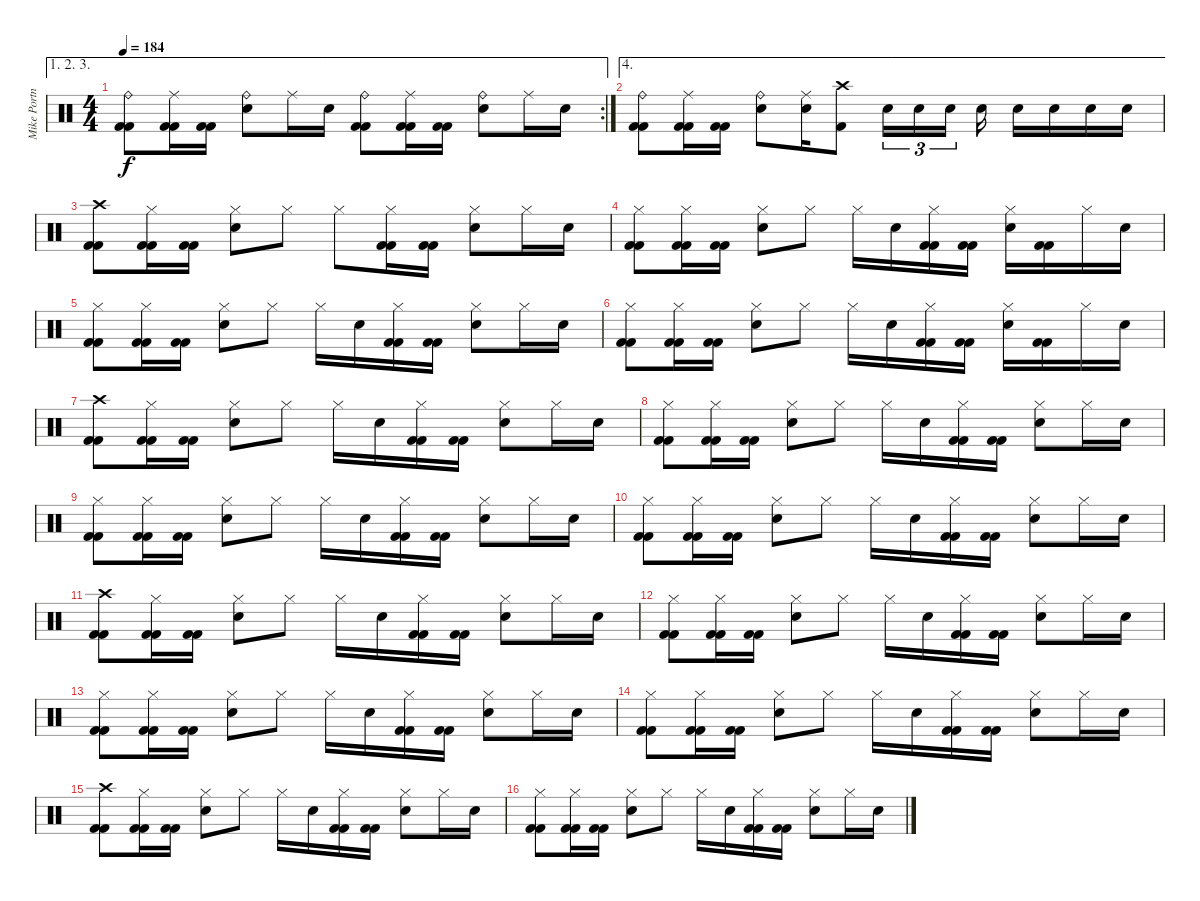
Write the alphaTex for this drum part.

\track ("Mike Portnoy - Drum" "Mike Portn") {instrument percussion}
\staff {score}
\articulation defaults
\ae (1 2 3)
\rc 2
\ts (4 4)
\tempo 184
\clef neutral
\ks c
("Ride (bell)" "Kick (hit) 2" "Kick (hit) 2").8{dy f} ("Ride (middle)" "Kick (hit) 2" "Kick (hit) 2").16 ("Kick (hit) 2" "Kick (hit) 2").16 ("Ride (bell)" "Snare (hit) 2").8 "Ride (middle)".16 "Snare (hit) 2".16 ("Ride (bell)" "Kick (hit) 2" "Kick (hit) 2").8 ("Ride (middle)" "Kick (hit) 2" "Kick (hit) 2").16 ("Kick (hit) 2" "Kick (hit) 2").16 ("Ride (bell)" "Snare (hit) 2").8 "Ride (middle)".16 "Snare (hit) 2".16 |
\ae 4
("Ride (bell)" "Kick (hit) 2" "Kick (hit) 2").8 ("Ride (middle)" "Kick (hit) 2" "Kick (hit) 2").16 ("Kick (hit) 2" "Kick (hit) 2").16 ("Ride (bell)" "Snare (hit) 2").8 ("Ride (middle)" "Snare (hit) 2").16 ("Crash high (hit)" "Kick (hit) 2").8 "Snare (hit) 2".16{tu (3 2)} "Snare (hit) 2".16{tu (3 2)} "Snare (hit) 2".16{tu (3 2)} "Snare (hit) 2".16 "Snare (hit) 2".16 "Snare (hit) 2".16 "Snare (hit) 2".16 "Snare (hit) 2".16 |
("Crash high (hit)" "Kick (hit) 2" "Kick (hit) 2").8 ("Hi-Hat (closed)" "Kick (hit) 2" "Kick (hit) 2").16 ("Kick (hit) 2" "Kick (hit) 2").16 ("Hi-Hat (closed)" "Snare (hit) 2").8 "Hi-Hat (closed)".8 "Hi-Hat (closed)".8 ("Hi-Hat (closed)" "Kick (hit) 2" "Kick (hit) 2").16 ("Kick (hit) 2" "Kick (hit) 2").16 ("Hi-Hat (closed)" "Snare (hit) 2").8 "Hi-Hat (closed)".16 "Snare (hit) 2".16 |
("Hi-Hat (closed)" "Kick (hit) 2" "Kick (hit) 2").8 ("Hi-Hat (closed)" "Kick (hit) 2" "Kick (hit) 2").16 ("Kick (hit) 2" "Kick (hit) 2").16 ("Hi-Hat (closed)" "Snare (hit) 2").8 "Hi-Hat (closed)".8 "Hi-Hat (closed)".16 "Snare (hit) 2".16 ("Hi-Hat (closed)" "Kick (hit) 2" "Kick (hit) 2").16 ("Kick (hit) 2" "Kick (hit) 2").16 ("Hi-Hat (closed)" "Snare (hit) 2").16 ("Kick (hit) 2" "Kick (hit) 2").16 "Hi-Hat (closed)".16 "Snare (hit) 2".16 |
("Hi-Hat (closed)" "Kick (hit) 2" "Kick (hit) 2").8 ("Hi-Hat (closed)" "Kick (hit) 2" "Kick (hit) 2").16 ("Kick (hit) 2" "Kick (hit) 2").16 ("Hi-Hat (closed)" "Snare (hit) 2").8 "Hi-Hat (closed)".8 "Hi-Hat (closed)".16 "Snare (hit) 2".16 ("Hi-Hat (closed)" "Kick (hit) 2" "Kick (hit) 2").16 ("Kick (hit) 2" "Kick (hit) 2").16 ("Hi-Hat (closed)" "Snare (hit) 2").8 "Hi-Hat (closed)".16 "Snare (hit) 2".16 |
("Hi-Hat (closed)" "Kick (hit) 2" "Kick (hit) 2").8 ("Hi-Hat (closed)" "Kick (hit) 2" "Kick (hit) 2").16 ("Kick (hit) 2" "Kick (hit) 2").16 ("Hi-Hat (closed)" "Snare (hit) 2").8 "Hi-Hat (closed)".8 "Hi-Hat (closed)".16 "Snare (hit) 2".16 ("Hi-Hat (closed)" "Kick (hit) 2" "Kick (hit) 2").16 ("Kick (hit) 2" "Kick (hit) 2").16 ("Hi-Hat (closed)" "Snare (hit) 2").16 ("Kick (hit) 2" "Kick (hit) 2").16 "Hi-Hat (closed)".16 "Snare (hit) 2".16 |
("Crash high (hit)" "Kick (hit) 2" "Kick (hit) 2").8 ("Hi-Hat (closed)" "Kick (hit) 2" "Kick (hit) 2").16 ("Kick (hit) 2" "Kick (hit) 2").16 ("Hi-Hat (closed)" "Snare (hit) 2").8 "Hi-Hat (closed)".8 "Hi-Hat (closed)".16 "Snare (hit) 2".16 ("Hi-Hat (closed)" "Kick (hit) 2" "Kick (hit) 2").16 ("Kick (hit) 2" "Kick (hit) 2").16 ("Hi-Hat (closed)" "Snare (hit) 2").8 "Hi-Hat (closed)".16 "Snare (hit) 2".16 |
("Hi-Hat (closed)" "Kick (hit) 2" "Kick (hit) 2").8 ("Hi-Hat (closed)" "Kick (hit) 2" "Kick (hit) 2").16 ("Kick (hit) 2" "Kick (hit) 2").16 ("Hi-Hat (closed)" "Snare (hit) 2").8 "Hi-Hat (closed)".8 "Hi-Hat (closed)".16 "Snare (hit) 2".16 ("Hi-Hat (closed)" "Kick (hit) 2" "Kick (hit) 2").16 ("Kick (hit) 2" "Kick (hit) 2").16 ("Hi-Hat (closed)" "Snare (hit) 2").8 "Hi-Hat (closed)".16 "Snare (hit) 2".16 |
("Hi-Hat (closed)" "Kick (hit) 2" "Kick (hit) 2").8 ("Hi-Hat (closed)" "Kick (hit) 2" "Kick (hit) 2").16 ("Kick (hit) 2" "Kick (hit) 2").16 ("Hi-Hat (closed)" "Snare (hit) 2").8 "Hi-Hat (closed)".8 "Hi-Hat (closed)".16 "Snare (hit) 2".16 ("Hi-Hat (closed)" "Kick (hit) 2" "Kick (hit) 2").16 ("Kick (hit) 2" "Kick (hit) 2").16 ("Hi-Hat (closed)" "Snare (hit) 2").8 "Hi-Hat (closed)".16 "Snare (hit) 2".16 |
("Hi-Hat (closed)" "Kick (hit) 2" "Kick (hit) 2").8 ("Hi-Hat (closed)" "Kick (hit) 2" "Kick (hit) 2").16 ("Kick (hit) 2" "Kick (hit) 2").16 ("Hi-Hat (closed)" "Snare (hit) 2").8 "Hi-Hat (closed)".8 "Hi-Hat (closed)".16 "Snare (hit) 2".16 ("Hi-Hat (closed)" "Kick (hit) 2" "Kick (hit) 2").16 ("Kick (hit) 2" "Kick (hit) 2").16 ("Hi-Hat (closed)" "Snare (hit) 2").8 "Hi-Hat (closed)".16 "Snare (hit) 2".16 |
("Crash high (hit)" "Kick (hit) 2" "Kick (hit) 2").8 ("Hi-Hat (closed)" "Kick (hit) 2" "Kick (hit) 2").16 ("Kick (hit) 2" "Kick (hit) 2").16 ("Hi-Hat (closed)" "Snare (hit) 2").8 "Hi-Hat (closed)".8 "Hi-Hat (closed)".16 "Snare (hit) 2".16 ("Hi-Hat (closed)" "Kick (hit) 2" "Kick (hit) 2").16 ("Kick (hit) 2" "Kick (hit) 2").16 ("Hi-Hat (closed)" "Snare (hit) 2").8 "Hi-Hat (closed)".16 "Snare (hit) 2".16 |
("Hi-Hat (closed)" "Kick (hit) 2" "Kick (hit) 2").8 ("Hi-Hat (closed)" "Kick (hit) 2" "Kick (hit) 2").16 ("Kick (hit) 2" "Kick (hit) 2").16 ("Hi-Hat (closed)" "Snare (hit) 2").8 "Hi-Hat (closed)".8 "Hi-Hat (closed)".16 "Snare (hit) 2".16 ("Hi-Hat (closed)" "Kick (hit) 2" "Kick (hit) 2").16 ("Kick (hit) 2" "Kick (hit) 2").16 ("Hi-Hat (closed)" "Snare (hit) 2").8 "Hi-Hat (closed)".16 "Snare (hit) 2".16 |
("Hi-Hat (closed)" "Kick (hit) 2" "Kick (hit) 2").8 ("Hi-Hat (closed)" "Kick (hit) 2" "Kick (hit) 2").16 ("Kick (hit) 2" "Kick (hit) 2").16 ("Hi-Hat (closed)" "Snare (hit) 2").8 "Hi-Hat (closed)".8 "Hi-Hat (closed)".16 "Snare (hit) 2".16 ("Hi-Hat (closed)" "Kick (hit) 2" "Kick (hit) 2").16 ("Kick (hit) 2" "Kick (hit) 2").16 ("Hi-Hat (closed)" "Snare (hit) 2").8 "Hi-Hat (closed)".16 "Snare (hit) 2".16 |
("Hi-Hat (closed)" "Kick (hit) 2" "Kick (hit) 2").8 ("Hi-Hat (closed)" "Kick (hit) 2" "Kick (hit) 2").16 ("Kick (hit) 2" "Kick (hit) 2").16 ("Hi-Hat (closed)" "Snare (hit) 2").8 "Hi-Hat (closed)".8 "Hi-Hat (closed)".16 "Snare (hit) 2".16 ("Hi-Hat (closed)" "Kick (hit) 2" "Kick (hit) 2").16 ("Kick (hit) 2" "Kick (hit) 2").16 ("Hi-Hat (closed)" "Snare (hit) 2").8 "Hi-Hat (closed)".16 "Snare (hit) 2".16 |
("Crash high (hit)" "Kick (hit) 2" "Kick (hit) 2").8 ("Hi-Hat (closed)" "Kick (hit) 2" "Kick (hit) 2").16 ("Kick (hit) 2" "Kick (hit) 2").16 ("Hi-Hat (closed)" "Snare (hit) 2").8 "Hi-Hat (closed)".8 "Hi-Hat (closed)".16 "Snare (hit) 2".16 ("Hi-Hat (closed)" "Kick (hit) 2" "Kick (hit) 2").16 ("Kick (hit) 2" "Kick (hit) 2").16 ("Hi-Hat (closed)" "Snare (hit) 2").8 "Hi-Hat (closed)".16 "Snare (hit) 2".16 |
("Hi-Hat (closed)" "Kick (hit) 2" "Kick (hit) 2").8 ("Hi-Hat (closed)" "Kick (hit) 2" "Kick (hit) 2").16 ("Kick (hit) 2" "Kick (hit) 2").16 ("Hi-Hat (closed)" "Snare (hit) 2").8 "Hi-Hat (closed)".8 "Hi-Hat (closed)".16 "Snare (hit) 2".16 ("Hi-Hat (closed)" "Kick (hit) 2" "Kick (hit) 2").16 ("Kick (hit) 2" "Kick (hit) 2").16 ("Hi-Hat (closed)" "Snare (hit) 2").8 "Hi-Hat (closed)".16 "Snare (hit) 2".16
